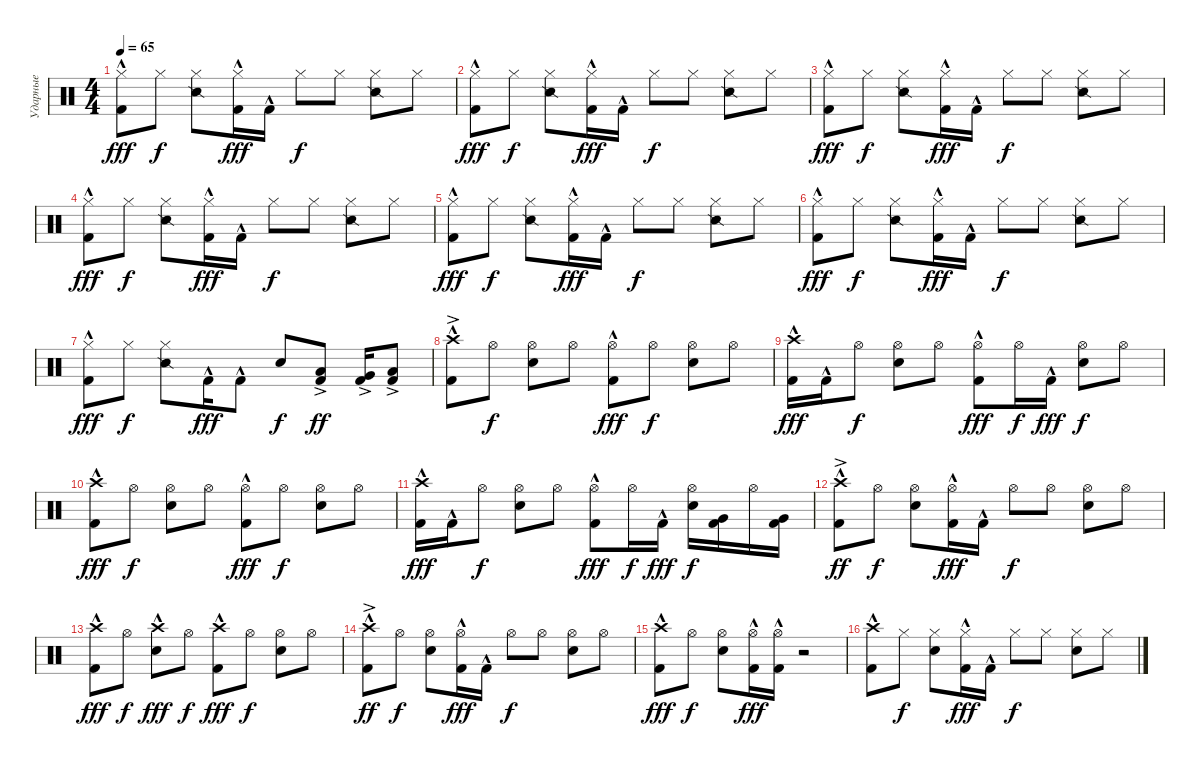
\track ("Ударные" "Ударные") {instrument percussion}
\staff {score}
\articulation defaults
\ts (4 4)
\tempo 65
\clef neutral
\ks c
("Kick (hit) 2"{hac} "Hi-Hat (closed)").8{dy fff} "Hi-Hat (closed)".8{dy f} ("Snare (side stick) 2" "Hi-Hat (closed)").8 ("Kick (hit) 2"{hac} "Hi-Hat (closed)").16{dy fff} "Kick (hit) 2"{hac}.16 "Hi-Hat (closed)".8{dy f} "Hi-Hat (closed)".8 ("Snare (side stick) 2" "Hi-Hat (closed)").8 "Hi-Hat (closed)".8 |
("Kick (hit) 2"{hac} "Hi-Hat (closed)").8{dy fff} "Hi-Hat (closed)".8{dy f} ("Snare (side stick) 2" "Hi-Hat (closed)").8 ("Kick (hit) 2"{hac} "Hi-Hat (closed)").16{dy fff} "Kick (hit) 2"{hac}.16 "Hi-Hat (closed)".8{dy f} "Hi-Hat (closed)".8 ("Snare (side stick) 2" "Hi-Hat (closed)").8 "Hi-Hat (closed)".8 |
("Kick (hit) 2"{hac} "Hi-Hat (closed)").8{dy fff} "Hi-Hat (closed)".8{dy f} ("Snare (side stick) 2" "Hi-Hat (closed)").8 ("Kick (hit) 2"{hac} "Hi-Hat (closed)").16{dy fff} "Kick (hit) 2"{hac}.16 "Hi-Hat (closed)".8{dy f} "Hi-Hat (closed)".8 ("Snare (side stick) 2" "Hi-Hat (closed)").8 "Hi-Hat (closed)".8 |
("Kick (hit) 2"{hac} "Hi-Hat (closed)").8{dy fff} "Hi-Hat (closed)".8{dy f} ("Snare (side stick) 2" "Hi-Hat (closed)").8 ("Kick (hit) 2"{hac} "Hi-Hat (closed)").16{dy fff} "Kick (hit) 2"{hac}.16 "Hi-Hat (closed)".8{dy f} "Hi-Hat (closed)".8 ("Snare (side stick) 2" "Hi-Hat (closed)").8 "Hi-Hat (closed)".8 |
("Kick (hit) 2"{hac} "Hi-Hat (closed)").8{dy fff} "Hi-Hat (closed)".8{dy f} ("Snare (side stick) 2" "Hi-Hat (closed)").8 ("Kick (hit) 2"{hac} "Hi-Hat (closed)").16{dy fff} "Kick (hit) 2"{hac}.16 "Hi-Hat (closed)".8{dy f} "Hi-Hat (closed)".8 ("Snare (side stick) 2" "Hi-Hat (closed)").8 "Hi-Hat (closed)".8 |
("Kick (hit) 2"{hac} "Hi-Hat (closed)").8{dy fff} "Hi-Hat (closed)".8{dy f} ("Snare (side stick) 2" "Hi-Hat (closed)").8 ("Kick (hit) 2"{hac} "Hi-Hat (closed)").16{dy fff} "Kick (hit) 2"{hac}.16 "Hi-Hat (closed)".8{dy f} "Hi-Hat (closed)".8 ("Snare (side stick) 2" "Hi-Hat (closed)").8 "Hi-Hat (closed)".8 |
("Kick (hit) 2"{hac} "Hi-Hat (closed)").8{dy fff} "Hi-Hat (closed)".8{dy f} ("Snare (side stick) 2" "Hi-Hat (closed)").8 "Kick (hit) 2"{hac}.16{dy fff} "Kick (hit) 2"{hac}.8 "Snare (hit) 2".8{dy f} ("Kick (hit) 2" "Low Tom (hit)"{ac}).8{dy ff} ("Kick (hit) 2" "Very Low Tom (hit)"{ac}).16 ("Kick (hit) 2" "Low Floor Tom (hit)"{ac}).8 |
("Kick (hit) 2"{hac} "Crash high (hit)"{ac}).8 "Hi-Hat (open)".8{dy f} ("Snare (hit) 2" "Hi-Hat (open)").8 "Hi-Hat (open)".8 ("Kick (hit) 2"{hac} "Hi-Hat (open)").8{dy fff} "Hi-Hat (open)".8{dy f} ("Snare (hit) 2" "Hi-Hat (open)").8 "Hi-Hat (open)".8 |
("Kick (hit) 2"{hac} "Crash high (hit)").16{dy fff} "Kick (hit) 2"{hac}.16 "Hi-Hat (open)".8{dy f} ("Snare (hit) 2" "Hi-Hat (open)").8 "Hi-Hat (open)".8 ("Kick (hit) 2"{hac} "Hi-Hat (open)").8{dy fff} "Hi-Hat (open)".16{dy f} "Kick (hit) 2"{hac}.16{dy fff} ("Snare (hit) 2" "Hi-Hat (open)").8{dy f} "Hi-Hat (open)".8 |
("Kick (hit) 2"{hac} "Crash high (hit)").8{dy fff} "Hi-Hat (open)".8{dy f} ("Snare (hit) 2" "Hi-Hat (open)").8 "Hi-Hat (open)".8 ("Kick (hit) 2"{hac} "Hi-Hat (open)").8{dy fff} "Hi-Hat (open)".8{dy f} ("Snare (hit) 2" "Hi-Hat (open)").8 "Hi-Hat (open)".8 |
("Kick (hit) 2"{hac} "Crash high (hit)").16{dy fff} "Kick (hit) 2"{hac}.16 "Hi-Hat (open)".8{dy f} ("Snare (hit) 2" "Hi-Hat (open)").8 "Hi-Hat (open)".8 ("Kick (hit) 2"{hac} "Hi-Hat (open)").8{dy fff} "Hi-Hat (open)".16{dy f} "Kick (hit) 2"{hac}.16{dy fff} ("Snare (hit) 2" "Hi-Hat (open)").16{dy f} ("Kick (hit) 2" "Very Low Tom (hit)").16 "Hi-Hat (open)".16 ("Kick (hit) 2" "Very Low Tom (hit)").16 |
("Kick (hit) 2"{hac} "Crash high (hit)"{ac}).8{dy ff} "Hi-Hat (open)".8{dy f} ("Snare (hit) 2" "Hi-Hat (open)").8 ("Kick (hit) 2"{hac} "Hi-Hat (open)").16{dy fff} "Kick (hit) 2"{hac}.16 "Hi-Hat (open)".8{dy f} "Hi-Hat (open)".8 ("Snare (hit) 2" "Hi-Hat (open)").8 "Hi-Hat (open)".8 |
("Kick (hit) 2"{hac} "Crash high (hit)"{hac}).8{dy fff} "Hi-Hat (open)".8{dy f} ("Snare (hit) 2" "Crash high (hit)"{hac}).8{dy fff} "Hi-Hat (open)".8{dy f} ("Kick (hit) 2"{hac} "Crash high (hit)"{hac}).8{dy fff} "Hi-Hat (open)".8{dy f} ("Snare (hit) 2" "Hi-Hat (open)").8 "Hi-Hat (open)".8 |
("Kick (hit) 2"{hac} "Crash high (hit)"{ac}).8{dy ff} "Hi-Hat (open)".8{dy f} ("Snare (hit) 2" "Hi-Hat (open)").8 ("Kick (hit) 2"{hac} "Hi-Hat (open)").16{dy fff} "Kick (hit) 2"{hac}.16 "Hi-Hat (open)".8{dy f} "Hi-Hat (open)".8 ("Snare (hit) 2" "Hi-Hat (open)").8 "Hi-Hat (open)".8 |
("Kick (hit) 2"{hac} "Crash high (hit)").8{dy fff} "Hi-Hat (open)".8{dy f} ("Snare (hit) 2" "Hi-Hat (open)").8 ("Kick (hit) 2"{hac} "Hi-Hat (open)").16{dy fff} ("Kick (hit) 2"{hac} "Hi-Hat (open)").16 r.2 |
("Kick (hit) 2"{hac} "Crash high (hit)").8 "Hi-Hat (closed)".8{dy f} ("Snare (hit) 2" "Hi-Hat (closed)").8 ("Kick (hit) 2"{hac} "Hi-Hat (closed)").16{dy fff} "Kick (hit) 2"{hac}.16 "Hi-Hat (closed)".8{dy f} "Hi-Hat (closed)".8 ("Snare (hit) 2" "Hi-Hat (closed)").8 "Hi-Hat (closed)".8
